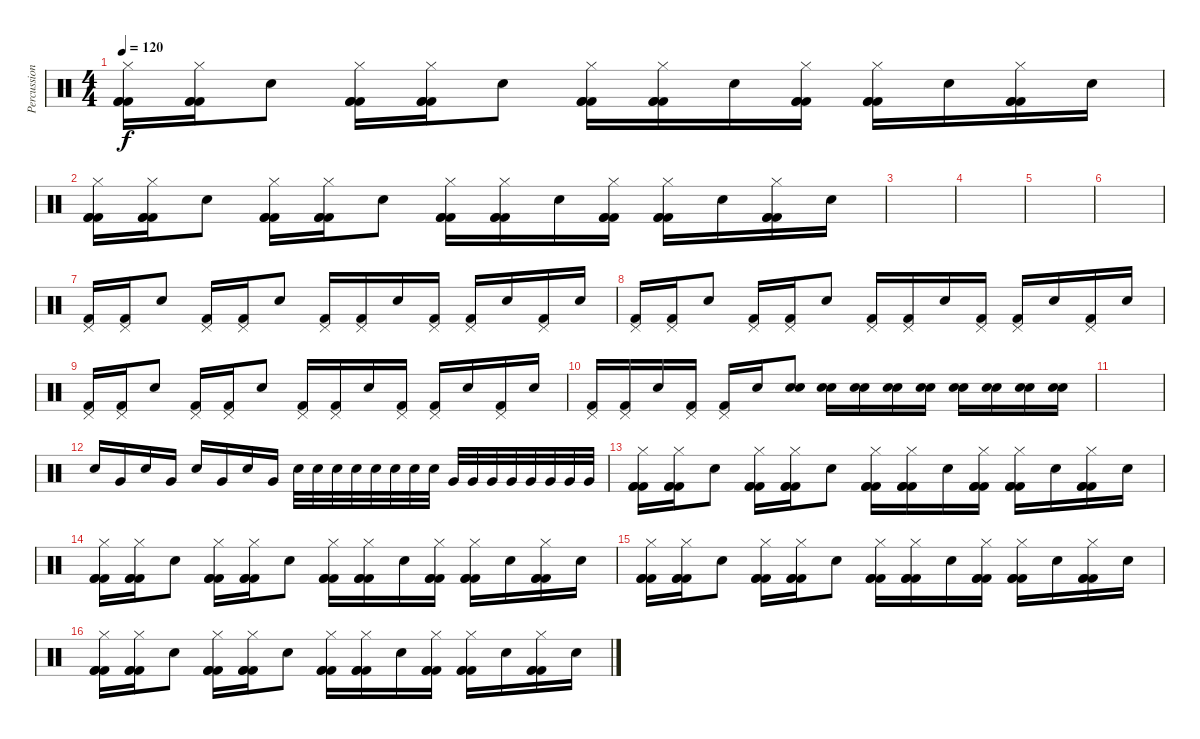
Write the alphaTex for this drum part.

\track ("Percussion" "Percussion") {instrument percussion}
\staff {score}
\articulation defaults
\ts (4 4)
\tempo 120
\clef neutral
\ks c
("Kick (hit) 2" "Kick (hit) 2" "Hi-Hat (closed)" "Kick (hit) 2").16{dy f} ("Kick (hit) 2" "Kick (hit) 2" "Hi-Hat (closed)" "Kick (hit) 2").16 "Snare (hit) 2".8 ("Kick (hit) 2" "Kick (hit) 2" "Hi-Hat (closed)" "Kick (hit) 2").16 ("Kick (hit) 2" "Kick (hit) 2" "Hi-Hat (closed)" "Kick (hit) 2").16 "Snare (hit) 2".8 ("Kick (hit) 2" "Kick (hit) 2" "Hi-Hat (closed)" "Kick (hit) 2").16 ("Kick (hit) 2" "Kick (hit) 2" "Hi-Hat (closed)" "Kick (hit) 2").16 "Snare (hit) 2".16 ("Kick (hit) 2" "Kick (hit) 2" "Hi-Hat (closed)" "Kick (hit) 2").16 ("Kick (hit) 2" "Kick (hit) 2" "Hi-Hat (closed)" "Kick (hit) 2").16 "Snare (hit) 2".16 ("Kick (hit) 2" "Kick (hit) 2" "Hi-Hat (closed)" "Kick (hit) 2").16 "Snare (hit) 2".16 |
("Kick (hit) 2" "Kick (hit) 2" "Hi-Hat (closed)" "Kick (hit) 2").16 ("Kick (hit) 2" "Kick (hit) 2" "Hi-Hat (closed)" "Kick (hit) 2").16 "Snare (hit) 2".8 ("Kick (hit) 2" "Kick (hit) 2" "Hi-Hat (closed)" "Kick (hit) 2").16 ("Kick (hit) 2" "Kick (hit) 2" "Hi-Hat (closed)" "Kick (hit) 2").16 "Snare (hit) 2".8 ("Kick (hit) 2" "Kick (hit) 2" "Hi-Hat (closed)" "Kick (hit) 2").16 ("Kick (hit) 2" "Kick (hit) 2" "Hi-Hat (closed)" "Kick (hit) 2").16 "Snare (hit) 2".16 ("Kick (hit) 2" "Kick (hit) 2" "Hi-Hat (closed)" "Kick (hit) 2").16 ("Kick (hit) 2" "Kick (hit) 2" "Hi-Hat (closed)" "Kick (hit) 2").16 "Snare (hit) 2".16 ("Kick (hit) 2" "Kick (hit) 2" "Hi-Hat (closed)" "Kick (hit) 2").16 "Snare (hit) 2".16 |
|
|
|
|
("Pedal Hi-Hat (hit)" "Kick (hit) 2").16 ("Pedal Hi-Hat (hit)" "Kick (hit) 2").16 "Snare (hit) 2".8 ("Pedal Hi-Hat (hit)" "Kick (hit) 2").16 ("Pedal Hi-Hat (hit)" "Kick (hit) 2").16 "Snare (hit) 2".8 ("Pedal Hi-Hat (hit)" "Kick (hit) 2").16 ("Pedal Hi-Hat (hit)" "Kick (hit) 2").16 "Snare (hit) 2".16 ("Pedal Hi-Hat (hit)" "Kick (hit) 2").16 ("Pedal Hi-Hat (hit)" "Kick (hit) 2").16 "Snare (hit) 2".16 ("Pedal Hi-Hat (hit)" "Kick (hit) 2").16 "Snare (hit) 2".16 |
("Pedal Hi-Hat (hit)" "Kick (hit) 2").16 ("Pedal Hi-Hat (hit)" "Kick (hit) 2").16 "Snare (hit) 2".8 ("Pedal Hi-Hat (hit)" "Kick (hit) 2").16 ("Pedal Hi-Hat (hit)" "Kick (hit) 2").16 "Snare (hit) 2".8 ("Pedal Hi-Hat (hit)" "Kick (hit) 2").16 ("Pedal Hi-Hat (hit)" "Kick (hit) 2").16 "Snare (hit) 2".16 ("Pedal Hi-Hat (hit)" "Kick (hit) 2").16 ("Pedal Hi-Hat (hit)" "Kick (hit) 2").16 "Snare (hit) 2".16 ("Pedal Hi-Hat (hit)" "Kick (hit) 2").16 "Snare (hit) 2".16 |
("Pedal Hi-Hat (hit)" "Kick (hit) 2").16 ("Pedal Hi-Hat (hit)" "Kick (hit) 2").16 "Snare (hit) 2".8 ("Pedal Hi-Hat (hit)" "Kick (hit) 2").16 ("Pedal Hi-Hat (hit)" "Kick (hit) 2").16 "Snare (hit) 2".8 ("Pedal Hi-Hat (hit)" "Kick (hit) 2").16 ("Pedal Hi-Hat (hit)" "Kick (hit) 2").16 "Snare (hit) 2".16 ("Pedal Hi-Hat (hit)" "Kick (hit) 2").16 ("Pedal Hi-Hat (hit)" "Kick (hit) 2").16 "Snare (hit) 2".16 ("Pedal Hi-Hat (hit)" "Kick (hit) 2").16 "Snare (hit) 2".16 |
("Pedal Hi-Hat (hit)" "Kick (hit) 2").16 ("Pedal Hi-Hat (hit)" "Kick (hit) 2").16 "Snare (hit) 2".16 ("Pedal Hi-Hat (hit)" "Kick (hit) 2").16 ("Pedal Hi-Hat (hit)" "Kick (hit) 2").16 "Snare (hit) 2".16 ("Snare (hit) 2" "Snare (hit) 2").8 ("Snare (hit) 2" "Snare (hit) 2").16 ("Snare (hit) 2" "Snare (hit) 2").16 ("Snare (hit) 2" "Snare (hit) 2").16 ("Snare (hit) 2" "Snare (hit) 2").16 ("Snare (hit) 2" "Snare (hit) 2").16 ("Snare (hit) 2" "Snare (hit) 2").16 ("Snare (hit) 2" "Snare (hit) 2").16 ("Snare (hit) 2" "Snare (hit) 2").16 |
|
"Snare (hit) 2".16 "Very Low Tom (hit)".16 "Snare (hit) 2".16 "Very Low Tom (hit)".16 "Snare (hit) 2".16 "Very Low Tom (hit)".16 "Snare (hit) 2".16 "Very Low Tom (hit)".16 "Snare (hit) 2".32 "Snare (hit) 2".32 "Snare (hit) 2".32 "Snare (hit) 2".32 "Snare (hit) 2".32 "Snare (hit) 2".32 "Snare (hit) 2".32 "Snare (hit) 2".32 "Very Low Tom (hit)".32 "Very Low Tom (hit)".32 "Very Low Tom (hit)".32 "Very Low Tom (hit)".32 "Very Low Tom (hit)".32 "Very Low Tom (hit)".32 "Very Low Tom (hit)".32 "Very Low Tom (hit)".32 |
("Kick (hit) 2" "Kick (hit) 2" "Hi-Hat (closed)" "Kick (hit) 2").16 ("Kick (hit) 2" "Kick (hit) 2" "Hi-Hat (closed)" "Kick (hit) 2").16 "Snare (hit) 2".8 ("Kick (hit) 2" "Kick (hit) 2" "Hi-Hat (closed)" "Kick (hit) 2").16 ("Kick (hit) 2" "Kick (hit) 2" "Hi-Hat (closed)" "Kick (hit) 2").16 "Snare (hit) 2".8 ("Kick (hit) 2" "Kick (hit) 2" "Hi-Hat (closed)" "Kick (hit) 2").16 ("Kick (hit) 2" "Kick (hit) 2" "Hi-Hat (closed)" "Kick (hit) 2").16 "Snare (hit) 2".16 ("Kick (hit) 2" "Kick (hit) 2" "Hi-Hat (closed)" "Kick (hit) 2").16 ("Kick (hit) 2" "Kick (hit) 2" "Hi-Hat (closed)" "Kick (hit) 2").16 "Snare (hit) 2".16 ("Kick (hit) 2" "Kick (hit) 2" "Hi-Hat (closed)" "Kick (hit) 2").16 "Snare (hit) 2".16 |
("Kick (hit) 2" "Kick (hit) 2" "Hi-Hat (closed)" "Kick (hit) 2").16 ("Kick (hit) 2" "Kick (hit) 2" "Hi-Hat (closed)" "Kick (hit) 2").16 "Snare (hit) 2".8 ("Kick (hit) 2" "Kick (hit) 2" "Hi-Hat (closed)" "Kick (hit) 2").16 ("Kick (hit) 2" "Kick (hit) 2" "Hi-Hat (closed)" "Kick (hit) 2").16 "Snare (hit) 2".8 ("Kick (hit) 2" "Kick (hit) 2" "Hi-Hat (closed)" "Kick (hit) 2").16 ("Kick (hit) 2" "Kick (hit) 2" "Hi-Hat (closed)" "Kick (hit) 2").16 "Snare (hit) 2".16 ("Kick (hit) 2" "Kick (hit) 2" "Hi-Hat (closed)" "Kick (hit) 2").16 ("Kick (hit) 2" "Kick (hit) 2" "Hi-Hat (closed)" "Kick (hit) 2").16 "Snare (hit) 2".16 ("Kick (hit) 2" "Kick (hit) 2" "Hi-Hat (closed)" "Kick (hit) 2").16 "Snare (hit) 2".16 |
("Kick (hit) 2" "Kick (hit) 2" "Hi-Hat (closed)" "Kick (hit) 2").16 ("Kick (hit) 2" "Kick (hit) 2" "Hi-Hat (closed)" "Kick (hit) 2").16 "Snare (hit) 2".8 ("Kick (hit) 2" "Kick (hit) 2" "Hi-Hat (closed)" "Kick (hit) 2").16 ("Kick (hit) 2" "Kick (hit) 2" "Hi-Hat (closed)" "Kick (hit) 2").16 "Snare (hit) 2".8 ("Kick (hit) 2" "Kick (hit) 2" "Hi-Hat (closed)" "Kick (hit) 2").16 ("Kick (hit) 2" "Kick (hit) 2" "Hi-Hat (closed)" "Kick (hit) 2").16 "Snare (hit) 2".16 ("Kick (hit) 2" "Kick (hit) 2" "Hi-Hat (closed)" "Kick (hit) 2").16 ("Kick (hit) 2" "Kick (hit) 2" "Hi-Hat (closed)" "Kick (hit) 2").16 "Snare (hit) 2".16 ("Kick (hit) 2" "Kick (hit) 2" "Hi-Hat (closed)" "Kick (hit) 2").16 "Snare (hit) 2".16 |
("Kick (hit) 2" "Kick (hit) 2" "Hi-Hat (closed)" "Kick (hit) 2").16 ("Kick (hit) 2" "Kick (hit) 2" "Hi-Hat (closed)" "Kick (hit) 2").16 "Snare (hit) 2".8 ("Kick (hit) 2" "Kick (hit) 2" "Hi-Hat (closed)" "Kick (hit) 2").16 ("Kick (hit) 2" "Kick (hit) 2" "Hi-Hat (closed)" "Kick (hit) 2").16 "Snare (hit) 2".8 ("Kick (hit) 2" "Kick (hit) 2" "Hi-Hat (closed)" "Kick (hit) 2").16 ("Kick (hit) 2" "Kick (hit) 2" "Hi-Hat (closed)" "Kick (hit) 2").16 "Snare (hit) 2".16 ("Kick (hit) 2" "Kick (hit) 2" "Hi-Hat (closed)" "Kick (hit) 2").16 ("Kick (hit) 2" "Kick (hit) 2" "Hi-Hat (closed)" "Kick (hit) 2").16 "Snare (hit) 2".16 ("Kick (hit) 2" "Kick (hit) 2" "Hi-Hat (closed)" "Kick (hit) 2").16 "Snare (hit) 2".16
